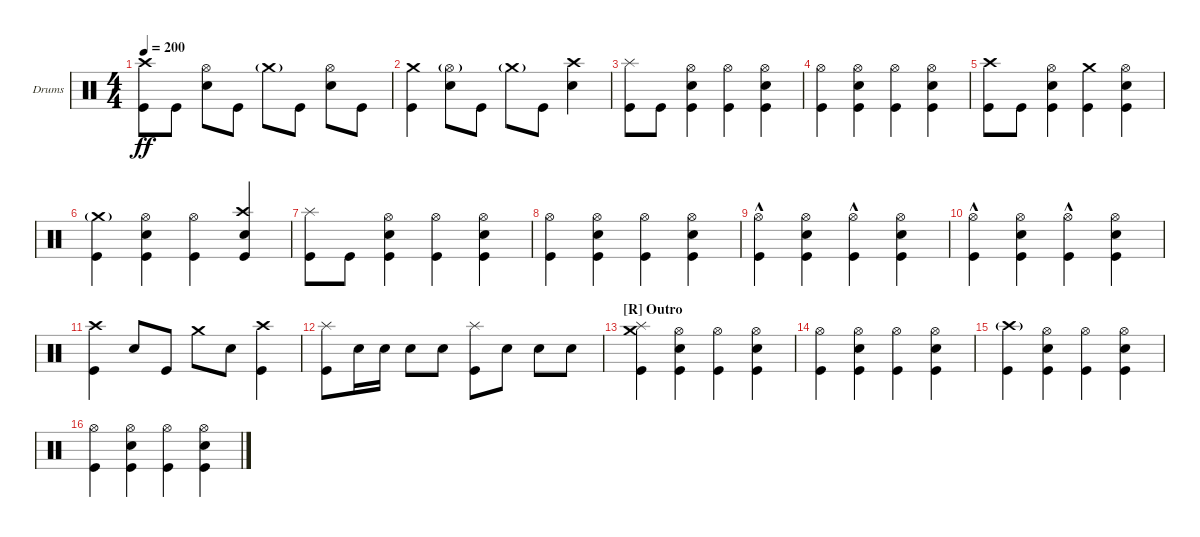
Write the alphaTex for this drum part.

\defaultSystemsLayout 4
\bracketExtendMode groupsimilarinstruments
\firstSystemTrackNameOrientation horizontal
\otherSystemsTrackNameOrientation horizontal
\track ("Drumkit" "Drums") {instrument percussion}
\staff {score}
\articulation defaults
\ts (4 4)
\tempo 200
\clef neutral
\ks c
("Kick (hit)" "Crash high (hit)").8{dy ff} "Kick (hit)".8 ("Snare (hit) 2" "Hi-Hat (open)").8 "Kick (hit)".8 "Crash medium (hit)"{g}.8 "Kick (hit)".8 ("Snare (hit) 2" "Hi-Hat (open)").8 "Kick (hit)".8 |
("Crash medium (hit)" "Kick (hit)").4 ("Snare (hit) 2" "Hi-Hat (open)"{g}).8 "Kick (hit)".8 "Crash medium (hit)"{g}.8 "Kick (hit)".8 ("Snare (hit) 2" "Crash high (hit)").4 |
("Splash (hit)" "Kick (hit)").8 "Kick (hit)".8 ("Kick (hit)" "Snare (hit) 2" "Hi-Hat (open)").4 ("Kick (hit)" "Hi-Hat (open)").4 ("Kick (hit)" "Snare (hit) 2" "Hi-Hat (open)").4 |
("Kick (hit)" "Hi-Hat (open)").4 ("Kick (hit)" "Snare (hit) 2" "Hi-Hat (open)").4 ("Kick (hit)" "Hi-Hat (open)").4 ("Kick (hit)" "Snare (hit) 2" "Hi-Hat (open)").4 |
("Kick (hit)" "Crash high (hit)").8 "Kick (hit)".8 ("Kick (hit)" "Snare (hit) 2" "Hi-Hat (open)").4 ("Kick (hit)" "Crash medium (hit)").4 ("Kick (hit)" "Snare (hit) 2" "Hi-Hat (open)").4 |
("Kick (hit)" "Crash medium (hit)"{g}).4 ("Kick (hit)" "Snare (hit) 2" "Hi-Hat (open)").4 ("Kick (hit)" "Hi-Hat (open)").4 ("Kick (hit)" "Snare (hit) 2" "Crash high (hit)").4 |
("Splash (hit)" "Kick (hit)").8 "Kick (hit)".8 ("Kick (hit)" "Snare (hit) 2" "Hi-Hat (open)").4 ("Kick (hit)" "Hi-Hat (open)").4 ("Kick (hit)" "Snare (hit) 2" "Hi-Hat (open)").4 |
("Kick (hit)" "Hi-Hat (open)").4 ("Kick (hit)" "Snare (hit) 2" "Hi-Hat (open)").4 ("Kick (hit)" "Hi-Hat (open)").4 ("Kick (hit)" "Snare (hit) 2" "Hi-Hat (open)").4 |
("Kick (hit)" "Hi-Hat (open)"{hac}).4 ("Kick (hit)" "Snare (hit) 2" "Hi-Hat (open)").4 ("Kick (hit)" "Hi-Hat (open)"{hac}).4 ("Kick (hit)" "Snare (hit) 2" "Hi-Hat (open)").4 |
("Kick (hit)" "Hi-Hat (open)"{hac}).4 ("Kick (hit)" "Snare (hit) 2" "Hi-Hat (open)").4 ("Kick (hit)" "Hi-Hat (open)"{hac}).4 ("Kick (hit)" "Snare (hit) 2" "Hi-Hat (open)").4 |
("Kick (hit)" "Crash high (hit)").4 "Snare (hit) 2".8 "Kick (hit)".8 "Crash medium (hit)".8 "Snare (hit) 2".8 ("Crash high (hit)" "Kick (hit)").4 |
("Kick (hit)" "Splash (hit)").8 "Snare (hit) 2".16 "Snare (hit) 2".16 "Snare (hit) 2".8 "Snare (hit) 2".8 ("Kick (hit)" "Splash (hit)").8 "Snare (hit) 2".8 "Snare (hit) 2".8 "Snare (hit) 2".8 |
\section ("R" "Outro")
("Kick (hit)" "Splash (hit)" "Crash medium (hit)").4 ("Kick (hit)" "Snare (hit) 2" "Hi-Hat (open)").4 ("Kick (hit)" "Hi-Hat (open)").4 ("Kick (hit)" "Snare (hit) 2" "Hi-Hat (open)").4 |
("Kick (hit)" "Hi-Hat (open)").4 ("Kick (hit)" "Snare (hit) 2" "Hi-Hat (open)").4 ("Kick (hit)" "Hi-Hat (open)").4 ("Kick (hit)" "Snare (hit) 2" "Hi-Hat (open)").4 |
("Kick (hit)" "Crash high (hit)"{g}).4 ("Kick (hit)" "Snare (hit) 2" "Hi-Hat (open)").4 ("Kick (hit)" "Hi-Hat (open)").4 ("Kick (hit)" "Snare (hit) 2" "Hi-Hat (open)").4 |
("Kick (hit)" "Hi-Hat (open)").4 ("Kick (hit)" "Snare (hit) 2" "Hi-Hat (open)").4 ("Kick (hit)" "Hi-Hat (open)").4 ("Kick (hit)" "Snare (hit) 2" "Hi-Hat (open)").4
